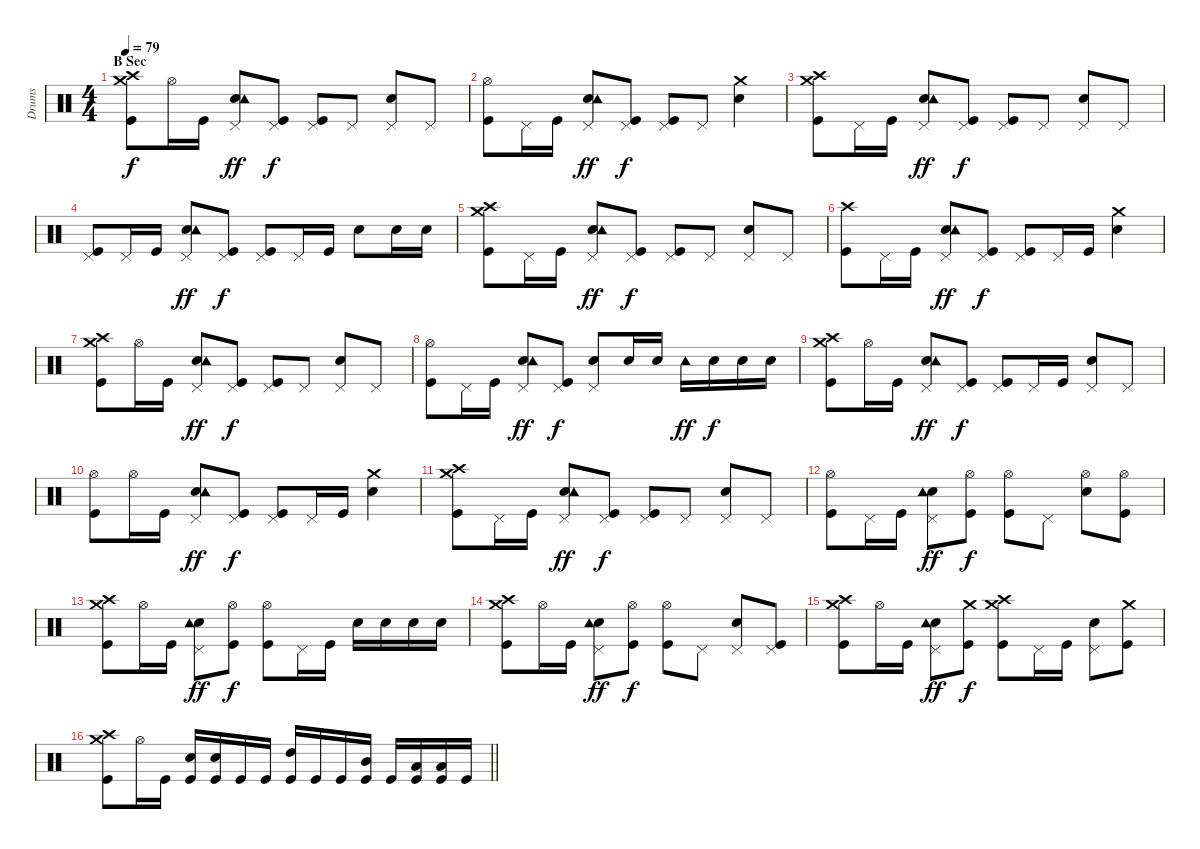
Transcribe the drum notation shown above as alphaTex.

\track ("Drums" "Drums") {instrument percussion}
\staff {score}
\articulation defaults
\ts (4 4)
\section ("" "B Sec")
\tempo 79
\clef neutral
\ks c
("Crash high (hit)" "Crash medium (hit)" "Kick (hit)").8{dy f} "Hi-Hat (open)".16 "Kick (hit)".16 ("Electric Snare (hit)" "Pedal Hi-Hat (hit)" "Tambourine (hit)").8{dy ff} ("Pedal Hi-Hat (hit)" "Kick (hit)").8{dy f} ("Pedal Hi-Hat (hit)" "Kick (hit)").8 "Pedal Hi-Hat (hit)".8 ("Electric Snare (hit)" "Pedal Hi-Hat (hit)").8 "Pedal Hi-Hat (hit)".8 |
("Hi-Hat (open)" "Kick (hit)").8 "Pedal Hi-Hat (hit)".16 "Kick (hit)".16 ("Electric Snare (hit)" "Pedal Hi-Hat (hit)" "Tambourine (hit)").8{dy ff} ("Pedal Hi-Hat (hit)" "Kick (hit)").8{dy f} ("Pedal Hi-Hat (hit)" "Kick (hit)").8 "Pedal Hi-Hat (hit)".8 ("Electric Snare (hit)" "Crash medium (hit)").4 |
("Crash high (hit)" "Crash medium (hit)" "Kick (hit)").8 "Pedal Hi-Hat (hit)".16 "Kick (hit)".16 ("Electric Snare (hit)" "Pedal Hi-Hat (hit)" "Tambourine (hit)").8{dy ff} ("Pedal Hi-Hat (hit)" "Kick (hit)").8{dy f} ("Pedal Hi-Hat (hit)" "Kick (hit)").8 "Pedal Hi-Hat (hit)".8 ("Electric Snare (hit)" "Pedal Hi-Hat (hit)").8 "Pedal Hi-Hat (hit)".8 |
("Pedal Hi-Hat (hit)" "Kick (hit)").8 "Pedal Hi-Hat (hit)".16 "Kick (hit)".16 ("Electric Snare (hit)" "Pedal Hi-Hat (hit)" "Tambourine (hit)").8{dy ff} ("Pedal Hi-Hat (hit)" "Kick (hit)").8{dy f} ("Pedal Hi-Hat (hit)" "Kick (hit)").8 "Pedal Hi-Hat (hit)".16 "Kick (hit)".16 "Electric Snare (hit)".8 "Electric Snare (hit)".16 "Electric Snare (hit)".16 |
("Crash high (hit)" "Crash medium (hit)" "Kick (hit)").8 "Pedal Hi-Hat (hit)".16 "Kick (hit)".16 ("Electric Snare (hit)" "Pedal Hi-Hat (hit)" "Tambourine (hit)").8{dy ff} ("Pedal Hi-Hat (hit)" "Kick (hit)").8{dy f} ("Pedal Hi-Hat (hit)" "Kick (hit)").8 "Pedal Hi-Hat (hit)".8 ("Electric Snare (hit)" "Pedal Hi-Hat (hit)").8 "Pedal Hi-Hat (hit)".8 |
("Crash high (hit)" "Kick (hit)").8 "Pedal Hi-Hat (hit)".16 "Kick (hit)".16 ("Electric Snare (hit)" "Pedal Hi-Hat (hit)" "Tambourine (hit)").8{dy ff} ("Pedal Hi-Hat (hit)" "Kick (hit)").8{dy f} ("Pedal Hi-Hat (hit)" "Kick (hit)").8 "Pedal Hi-Hat (hit)".16 "Kick (hit)".16 ("Electric Snare (hit)" "Crash medium (hit)").4 |
("Crash high (hit)" "Crash medium (hit)" "Kick (hit)").8 "Hi-Hat (open)".16 "Kick (hit)".16 ("Electric Snare (hit)" "Pedal Hi-Hat (hit)" "Tambourine (hit)").8{dy ff} ("Pedal Hi-Hat (hit)" "Kick (hit)").8{dy f} ("Pedal Hi-Hat (hit)" "Kick (hit)").8{txt ""} "Pedal Hi-Hat (hit)".8 ("Electric Snare (hit)" "Pedal Hi-Hat (hit)").8 "Pedal Hi-Hat (hit)".8 |
("Hi-Hat (open)" "Kick (hit)").8 "Pedal Hi-Hat (hit)".16 "Kick (hit)".16 ("Electric Snare (hit)" "Pedal Hi-Hat (hit)" "Tambourine (hit)").8{dy ff} ("Pedal Hi-Hat (hit)" "Kick (hit)").8{dy f} ("Electric Snare (hit)" "Pedal Hi-Hat (hit)").8 "Electric Snare (hit)".16 "Electric Snare (hit)".16 "Tambourine (hit)".16{dy ff} "Electric Snare (hit)".16{dy f} "Electric Snare (hit)".16 "Electric Snare (hit)".16 |
("Crash high (hit)" "Crash medium (hit)" "Kick (hit)").8 "Hi-Hat (open)".16 "Kick (hit)".16 ("Electric Snare (hit)" "Pedal Hi-Hat (hit)" "Tambourine (hit)").8{dy ff} ("Pedal Hi-Hat (hit)" "Kick (hit)").8{dy f} ("Pedal Hi-Hat (hit)" "Kick (hit)").8 "Pedal Hi-Hat (hit)".16 "Kick (hit)".16 ("Electric Snare (hit)" "Pedal Hi-Hat (hit)").8 "Pedal Hi-Hat (hit)".8 |
("Hi-Hat (open)" "Kick (hit)").8 "Hi-Hat (open)".16 "Kick (hit)".16 ("Electric Snare (hit)" "Pedal Hi-Hat (hit)" "Tambourine (hit)").8{dy ff} ("Pedal Hi-Hat (hit)" "Kick (hit)").8{dy f} ("Pedal Hi-Hat (hit)" "Kick (hit)").8 "Pedal Hi-Hat (hit)".16 "Kick (hit)".16 ("Electric Snare (hit)" "Crash medium (hit)").4 |
("Crash high (hit)" "Crash medium (hit)" "Kick (hit)").8 "Pedal Hi-Hat (hit)".16 "Kick (hit)".16 ("Electric Snare (hit)" "Pedal Hi-Hat (hit)" "Tambourine (hit)").8{dy ff} ("Pedal Hi-Hat (hit)" "Kick (hit)").8{dy f} ("Pedal Hi-Hat (hit)" "Kick (hit)").8 "Pedal Hi-Hat (hit)".8 ("Electric Snare (hit)" "Pedal Hi-Hat (hit)").8 "Pedal Hi-Hat (hit)".8 |
("Hi-Hat (open)" "Kick (hit)").8 "Pedal Hi-Hat (hit)".16 "Kick (hit)".16 ("Electric Snare (hit)" "Pedal Hi-Hat (hit)" "Tambourine (hit)").8{dy ff} ("Hi-Hat (open)" "Kick (hit)").8{dy f} ("Hi-Hat (open)" "Kick (hit)").8 "Pedal Hi-Hat (hit)".8 ("Electric Snare (hit)" "Hi-Hat (open)").8 ("Hi-Hat (open)" "Kick (hit)").8 |
("Crash high (hit)" "Crash medium (hit)" "Kick (hit)").8 "Hi-Hat (open)".16 "Kick (hit)".16 ("Electric Snare (hit)" "Pedal Hi-Hat (hit)" "Tambourine (hit)").8{dy ff} ("Hi-Hat (open)" "Kick (hit)").8{dy f} ("Hi-Hat (open)" "Kick (hit)").8 "Pedal Hi-Hat (hit)".16 "Kick (hit)".16 "Electric Snare (hit)".16 "Electric Snare (hit)".16 "Electric Snare (hit)".16 "Electric Snare (hit)".16 |
("Crash high (hit)" "Crash medium (hit)" "Kick (hit)").8 "Hi-Hat (open)".16 "Kick (hit)".16 ("Electric Snare (hit)" "Pedal Hi-Hat (hit)" "Tambourine (hit)").8{dy ff} ("Hi-Hat (open)" "Kick (hit)").8{dy f} ("Hi-Hat (open)" "Kick (hit)").8 "Pedal Hi-Hat (hit)".8 ("Electric Snare (hit)" "Pedal Hi-Hat (hit)").8 ("Pedal Hi-Hat (hit)" "Kick (hit)").8 |
("Crash high (hit)" "Crash medium (hit)" "Kick (hit)").8 "Hi-Hat (open)".16 "Kick (hit)".16 ("Electric Snare (hit)" "Pedal Hi-Hat (hit)" "Tambourine (hit)").8{dy ff} ("Crash medium (hit)" "Kick (hit)").8{dy f} ("Crash high (hit)" "Crash medium (hit)" "Kick (hit)").8 "Pedal Hi-Hat (hit)".16 "Kick (hit)".16 ("Electric Snare (hit)" "Pedal Hi-Hat (hit)").8 ("Crash medium (hit)" "Kick (hit)").8 |
\barLineRight lightlight
("Crash high (hit)" "Crash medium (hit)" "Kick (hit)").8 "Hi-Hat (open)".16 "Kick (hit)".16 ("Electric Snare (hit)" "Kick (hit)").16 ("Electric Snare (hit)" "Kick (hit)").16 "Kick (hit)".16 "Kick (hit)".16 ("High Tom (hit)" "Kick (hit)").16 "Kick (hit)".16 "Kick (hit)".16 ("Mid Tom (hit)" "Kick (hit)").16 "Kick (hit)".16 ("Low Tom (hit)" "Kick (hit)").16 ("Low Tom (hit)" "Kick (hit)").16 "Kick (hit)".16
